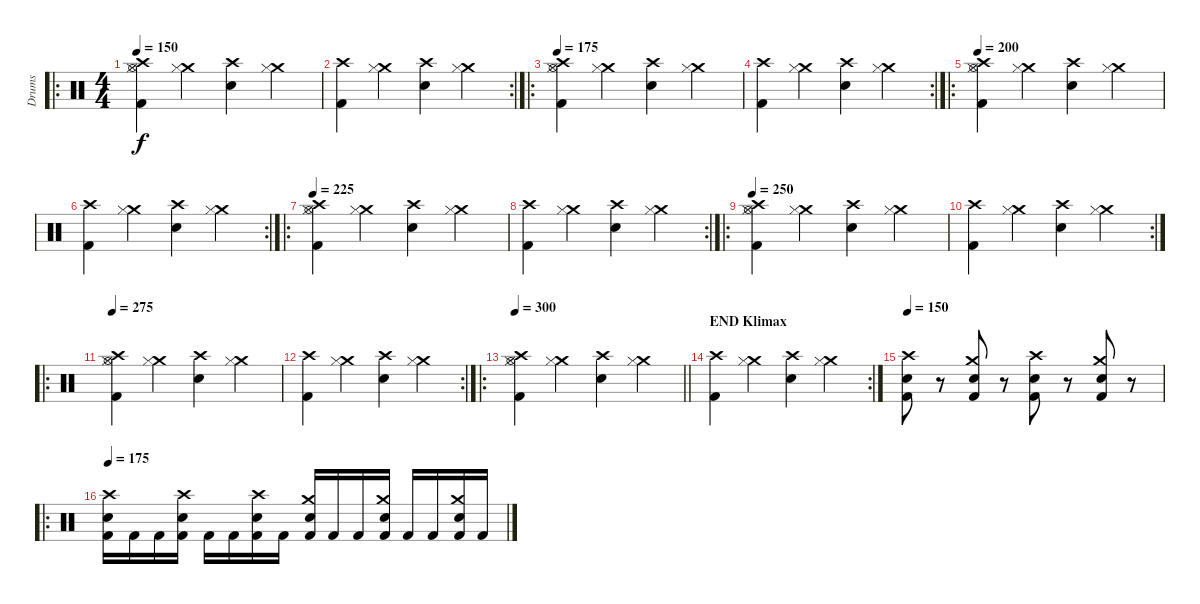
\track ("Drums" "Drums") {instrument percussion}
\staff {score}
\articulation defaults
\ro
\ts (4 4)
\tempo 150
\clef neutral
\ks c
("Crash high (hit)" "Hi-Hat (closed)" "Hi-Hat (open)" "Kick (hit) 2").4{dy f} ("Crash medium (hit)" "Hi-Hat (closed)").4 ("Crash high (hit)" "Snare (hit) 2").4 ("Crash medium (hit)" "Hi-Hat (closed)").4 |
\rc 2
("Crash high (hit)" "Kick (hit) 2").4 ("Crash medium (hit)" "Hi-Hat (closed)").4 ("Crash high (hit)" "Snare (hit) 2").4 ("Crash medium (hit)" "Hi-Hat (closed)").4 |
\ro
\tempo 175
("Crash high (hit)" "Hi-Hat (closed)" "Hi-Hat (open)" "Kick (hit) 2").4 ("Crash medium (hit)" "Hi-Hat (closed)").4 ("Crash high (hit)" "Snare (hit) 2").4 ("Crash medium (hit)" "Hi-Hat (closed)").4 |
\rc 2
("Crash high (hit)" "Kick (hit) 2").4 ("Crash medium (hit)" "Hi-Hat (closed)").4 ("Crash high (hit)" "Snare (hit) 2").4 ("Crash medium (hit)" "Hi-Hat (closed)").4 |
\ro
\tempo 200
("Crash high (hit)" "Hi-Hat (closed)" "Hi-Hat (open)" "Kick (hit) 2").4 ("Crash medium (hit)" "Hi-Hat (closed)").4 ("Crash high (hit)" "Snare (hit) 2").4 ("Crash medium (hit)" "Hi-Hat (closed)").4 |
\rc 2
("Crash high (hit)" "Kick (hit) 2").4 ("Crash medium (hit)" "Hi-Hat (closed)").4 ("Crash high (hit)" "Snare (hit) 2").4 ("Crash medium (hit)" "Hi-Hat (closed)").4 |
\ro
\tempo 225
("Crash high (hit)" "Hi-Hat (closed)" "Hi-Hat (open)" "Kick (hit) 2").4 ("Crash medium (hit)" "Hi-Hat (closed)").4 ("Crash high (hit)" "Snare (hit) 2").4 ("Crash medium (hit)" "Hi-Hat (closed)").4 |
\rc 2
("Crash high (hit)" "Kick (hit) 2").4 ("Crash medium (hit)" "Hi-Hat (closed)").4 ("Crash high (hit)" "Snare (hit) 2").4 ("Crash medium (hit)" "Hi-Hat (closed)").4 |
\ro
\tempo 250
("Crash high (hit)" "Hi-Hat (closed)" "Hi-Hat (open)" "Kick (hit) 2").4 ("Crash medium (hit)" "Hi-Hat (closed)").4 ("Crash high (hit)" "Snare (hit) 2").4 ("Crash medium (hit)" "Hi-Hat (closed)").4 |
\rc 2
("Crash high (hit)" "Kick (hit) 2").4 ("Crash medium (hit)" "Hi-Hat (closed)").4 ("Crash high (hit)" "Snare (hit) 2").4 ("Crash medium (hit)" "Hi-Hat (closed)").4 |
\ro
\tempo 275
("Crash high (hit)" "Hi-Hat (closed)" "Hi-Hat (open)" "Kick (hit) 2").4 ("Crash medium (hit)" "Hi-Hat (closed)").4 ("Crash high (hit)" "Snare (hit) 2").4 ("Crash medium (hit)" "Hi-Hat (closed)").4 |
\rc 2
("Crash high (hit)" "Kick (hit) 2").4 ("Crash medium (hit)" "Hi-Hat (closed)").4 ("Crash high (hit)" "Snare (hit) 2").4 ("Crash medium (hit)" "Hi-Hat (closed)").4 |
\ro
\tempo 300
\barLineRight lightlight
("Crash high (hit)" "Hi-Hat (closed)" "Hi-Hat (open)" "Kick (hit) 2").4 ("Crash medium (hit)" "Hi-Hat (closed)").4 ("Crash high (hit)" "Snare (hit) 2").4 ("Crash medium (hit)" "Hi-Hat (closed)").4 |
\rc 2
\section ("" "END Klimax")
("Crash high (hit)" "Kick (hit) 2").4 ("Crash medium (hit)" "Hi-Hat (closed)").4 ("Crash high (hit)" "Snare (hit) 2").4 ("Crash medium (hit)" "Hi-Hat (closed)").4 |
\tempo 150
("Crash high (hit)" "Snare (hit) 2" "Kick (hit) 2").8 r.8 ("Crash medium (hit)" "Snare (hit) 2" "Kick (hit) 2").8 r.8 ("Crash high (hit)" "Snare (hit) 2" "Kick (hit) 2").8 r.8 ("Crash medium (hit)" "Snare (hit) 2" "Kick (hit) 2").8 r.8 |
\ro
\tempo 175
("Crash high (hit)" "Snare (hit) 2" "Kick (hit) 2").16 "Kick (hit) 2".16 "Kick (hit) 2".16 ("Crash high (hit)" "Snare (hit) 2" "Kick (hit) 2").16 "Kick (hit) 2".16 "Kick (hit) 2".16 ("Crash high (hit)" "Snare (hit) 2" "Kick (hit) 2").16 "Kick (hit) 2".16 ("Crash medium (hit)" "Snare (hit) 2" "Kick (hit) 2").16 "Kick (hit) 2".16 "Kick (hit) 2".16 ("Crash medium (hit)" "Snare (hit) 2" "Kick (hit) 2").16 "Kick (hit) 2".16 "Kick (hit) 2".16 ("Crash medium (hit)" "Snare (hit) 2" "Kick (hit) 2").16 "Kick (hit) 2".16
